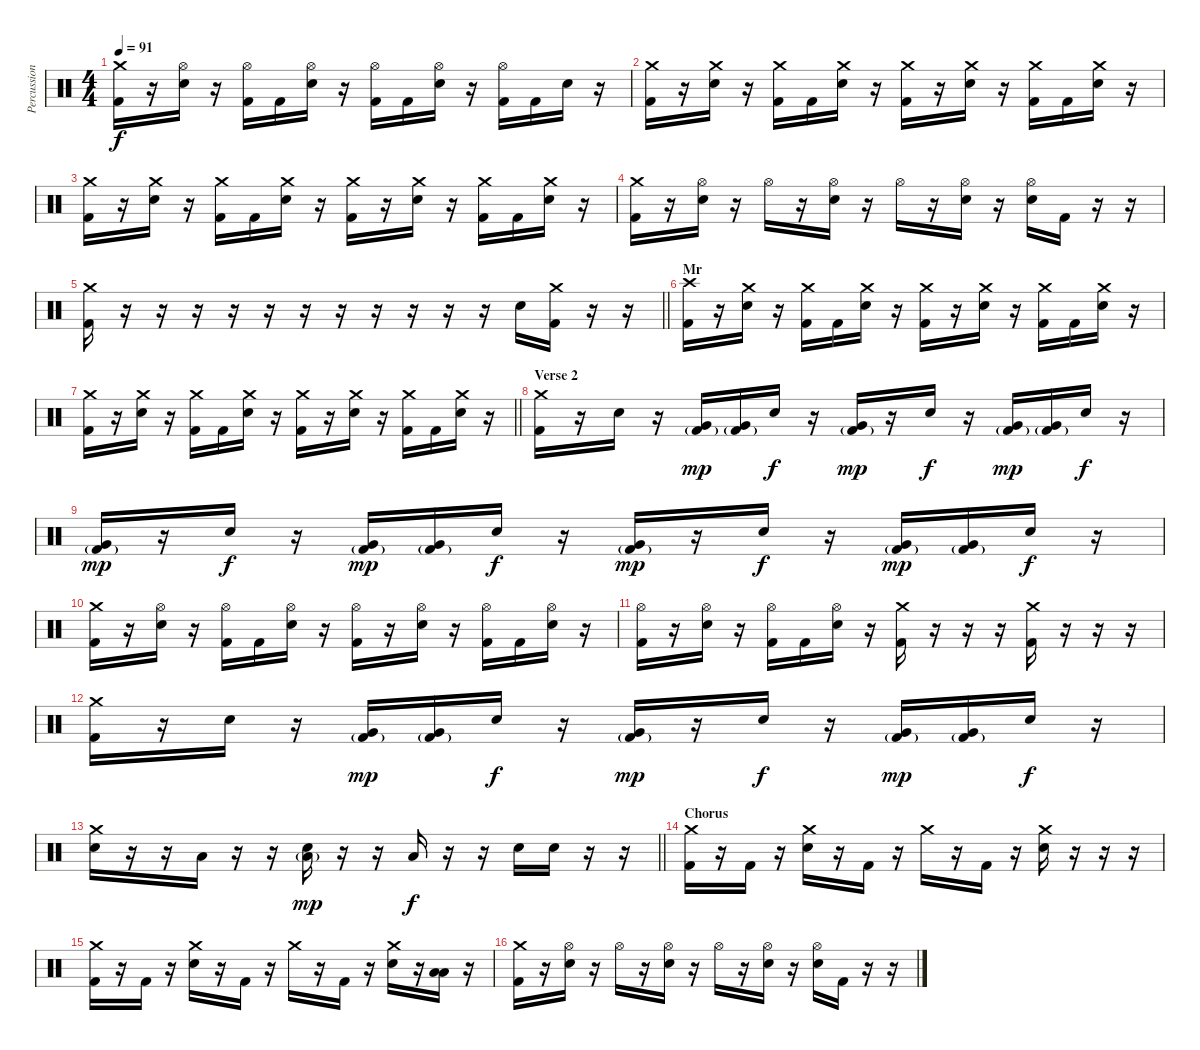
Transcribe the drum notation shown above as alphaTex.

\track ("Percussion" "Percussion") {instrument percussion}
\staff {score}
\articulation defaults
\ts (4 4)
\tempo 91
\clef neutral
\ks c
("Crash medium (hit)" "Kick (hit) 2").16{dy f} r.16 ("Hi-Hat (open)" "Electric Snare (hit)").16 r.16 ("Hi-Hat (open)" "Kick (hit) 2").16 "Kick (hit) 2".16 ("Hi-Hat (open)" "Electric Snare (hit)").16 r.16 ("Hi-Hat (open)" "Kick (hit) 2").16 "Kick (hit) 2".16 ("Hi-Hat (open)" "Electric Snare (hit)").16 r.16 ("Hi-Hat (open)" "Kick (hit) 2").16 "Kick (hit) 2".16 "Electric Snare (hit)".16 r.16 |
("Crash medium (hit)" "Kick (hit) 2").16 r.16 ("Crash medium (hit)" "Electric Snare (hit)").16 r.16 ("Crash medium (hit)" "Kick (hit) 2").16 "Kick (hit) 2".16 ("Crash medium (hit)" "Electric Snare (hit)").16 r.16 ("Crash medium (hit)" "Kick (hit) 2").16 r.16 ("Crash medium (hit)" "Electric Snare (hit)").16 r.16 ("Crash medium (hit)" "Kick (hit) 2").16 "Kick (hit) 2".16 ("Crash medium (hit)" "Electric Snare (hit)").16 r.16 |
("Crash medium (hit)" "Kick (hit) 2").16 r.16 ("Crash medium (hit)" "Electric Snare (hit)").16 r.16 ("Crash medium (hit)" "Kick (hit) 2").16 "Kick (hit) 2".16 ("Crash medium (hit)" "Electric Snare (hit)").16 r.16 ("Crash medium (hit)" "Kick (hit) 2").16 r.16 ("Crash medium (hit)" "Electric Snare (hit)").16 r.16 ("Crash medium (hit)" "Kick (hit) 2").16 "Kick (hit) 2".16 ("Crash medium (hit)" "Electric Snare (hit)").16 r.16 |
("Crash medium (hit)" "Kick (hit) 2").16 r.16 ("Hi-Hat (open)" "Electric Snare (hit)").16 r.16 "Hi-Hat (open)".16 r.16 ("Hi-Hat (open)" "Electric Snare (hit)").16 r.16 "Hi-Hat (open)".16 r.16 ("Hi-Hat (open)" "Electric Snare (hit)").16 r.16 ("Hi-Hat (open)" "Electric Snare (hit)").16 "Kick (hit) 2".16 r.16 r.16 |
\barLineRight lightlight
("Crash medium (hit)" "Kick (hit) 2").16 r.16 r.16 r.16 r.16 r.16 r.16 r.16 r.16 r.16 r.16 r.16 "Electric Snare (hit)".16 ("Crash medium (hit)" "Kick (hit) 2").16 r.16 r.16 |
\section ("" "Mr")
("Crash high (hit)" "Kick (hit) 2").16 r.16 ("Crash medium (hit)" "Electric Snare (hit)").16 r.16 ("Crash medium (hit)" "Kick (hit) 2").16 "Kick (hit) 2".16 ("Crash medium (hit)" "Electric Snare (hit)").16 r.16 ("Crash medium (hit)" "Kick (hit) 2").16 r.16 ("Crash medium (hit)" "Electric Snare (hit)").16 r.16 ("Crash medium (hit)" "Kick (hit) 2").16 "Kick (hit) 2".16 ("Crash medium (hit)" "Electric Snare (hit)").16 r.16 |
\barLineRight lightlight
("Crash medium (hit)" "Kick (hit) 2").16 r.16 ("Crash medium (hit)" "Electric Snare (hit)").16 r.16 ("Crash medium (hit)" "Kick (hit) 2").16 "Kick (hit) 2".16 ("Crash medium (hit)" "Electric Snare (hit)").16 r.16 ("Crash medium (hit)" "Kick (hit) 2").16 r.16 ("Crash medium (hit)" "Electric Snare (hit)").16 r.16 ("Crash medium (hit)" "Kick (hit) 2").16 "Kick (hit) 2".16 ("Crash medium (hit)" "Electric Snare (hit)").16 r.16 |
\section ("" "Verse 2")
("Crash medium (hit)" "Kick (hit) 2").16 r.16 "Electric Snare (hit)".16 r.16 ("Very Low Tom (hit)" "Kick (hit) 2"{g}).16{dy mp} ("Very Low Tom (hit)" "Kick (hit) 2"{g}).16 "Electric Snare (hit)".16{dy f} r.16 ("Very Low Tom (hit)" "Kick (hit) 2"{g}).16{dy mp} r.16 "Electric Snare (hit)".16{dy f} r.16 ("Very Low Tom (hit)" "Kick (hit) 2"{g}).16{dy mp} ("Very Low Tom (hit)" "Kick (hit) 2"{g}).16 "Electric Snare (hit)".16{dy f} r.16 |
("Very Low Tom (hit)" "Kick (hit) 2"{g}).16{dy mp} r.16 "Electric Snare (hit)".16{dy f} r.16 ("Very Low Tom (hit)" "Kick (hit) 2"{g}).16{dy mp} ("Very Low Tom (hit)" "Kick (hit) 2"{g}).16 "Electric Snare (hit)".16{dy f} r.16 ("Very Low Tom (hit)" "Kick (hit) 2"{g}).16{dy mp} r.16 "Electric Snare (hit)".16{dy f} r.16 ("Very Low Tom (hit)" "Kick (hit) 2"{g}).16{dy mp} ("Very Low Tom (hit)" "Kick (hit) 2"{g}).16 "Electric Snare (hit)".16{dy f} r.16 |
("Crash medium (hit)" "Kick (hit) 2").16 r.16 ("Hi-Hat (open)" "Electric Snare (hit)").16 r.16 ("Hi-Hat (open)" "Kick (hit) 2").16 "Kick (hit) 2".16 ("Hi-Hat (open)" "Electric Snare (hit)").16 r.16 ("Hi-Hat (open)" "Kick (hit) 2").16 r.16 ("Hi-Hat (open)" "Electric Snare (hit)").16 r.16 ("Hi-Hat (open)" "Kick (hit) 2").16 "Kick (hit) 2".16 ("Hi-Hat (open)" "Electric Snare (hit)").16 r.16 |
("Hi-Hat (open)" "Kick (hit) 2").16 r.16 ("Hi-Hat (open)" "Electric Snare (hit)").16 r.16 ("Hi-Hat (open)" "Kick (hit) 2").16 "Kick (hit) 2".16 ("Hi-Hat (open)" "Electric Snare (hit)").16 r.16 ("Crash medium (hit)" "Kick (hit) 2").16 r.16 r.16 r.16 ("Crash medium (hit)" "Kick (hit) 2").16 r.16 r.16 r.16 |
("Crash medium (hit)" "Kick (hit) 2").16 r.16 "Electric Snare (hit)".16 r.16 ("Very Low Tom (hit)" "Kick (hit) 2"{g}).16{dy mp} ("Very Low Tom (hit)" "Kick (hit) 2"{g}).16 "Electric Snare (hit)".16{dy f} r.16 ("Very Low Tom (hit)" "Kick (hit) 2"{g}).16{dy mp} r.16 "Electric Snare (hit)".16{dy f} r.16 ("Very Low Tom (hit)" "Kick (hit) 2"{g}).16{dy mp} ("Very Low Tom (hit)" "Kick (hit) 2"{g}).16 "Electric Snare (hit)".16{dy f} r.16 |
\barLineRight lightlight
("Crash medium (hit)" "Electric Snare (hit)").16 r.16 r.16 "Low Tom (hit)".16 r.16 r.16 ("Low Tom (hit)"{g} "Electric Snare (hit)").16{dy mp} r.16 r.16 "Low Tom (hit)".16{dy f} r.16 r.16 "Electric Snare (hit)".16 "Electric Snare (hit)".16 r.16 r.16 |
\section ("" "Chorus")
("Crash medium (hit)" "Kick (hit) 2").16 r.16 "Kick (hit) 2".16 r.16 ("Crash medium (hit)" "Electric Snare (hit)").16 r.16 "Kick (hit) 2".16 r.16 "Crash medium (hit)".16 r.16 "Kick (hit) 2".16 r.16 ("Crash medium (hit)" "Electric Snare (hit)").16 r.16 r.16 r.16 |
("Crash medium (hit)" "Kick (hit) 2").16 r.16 "Kick (hit) 2".16 r.16 ("Crash medium (hit)" "Electric Snare (hit)").16 r.16 "Kick (hit) 2".16 r.16 "Crash medium (hit)".16 r.16 "Kick (hit) 2".16 r.16 ("Crash medium (hit)" "Electric Snare (hit)").16 r.16 ("Low Tom (hit)" "Low Tom (hit)").16 r.16 |
("Crash medium (hit)" "Kick (hit) 2").16 r.16 ("Hi-Hat (open)" "Electric Snare (hit)").16 r.16 "Hi-Hat (open)".16 r.16 ("Hi-Hat (open)" "Electric Snare (hit)").16 r.16 "Hi-Hat (open)".16 r.16 ("Hi-Hat (open)" "Electric Snare (hit)").16 r.16 ("Hi-Hat (open)" "Electric Snare (hit)").16 "Kick (hit) 2".16 r.16 r.16
